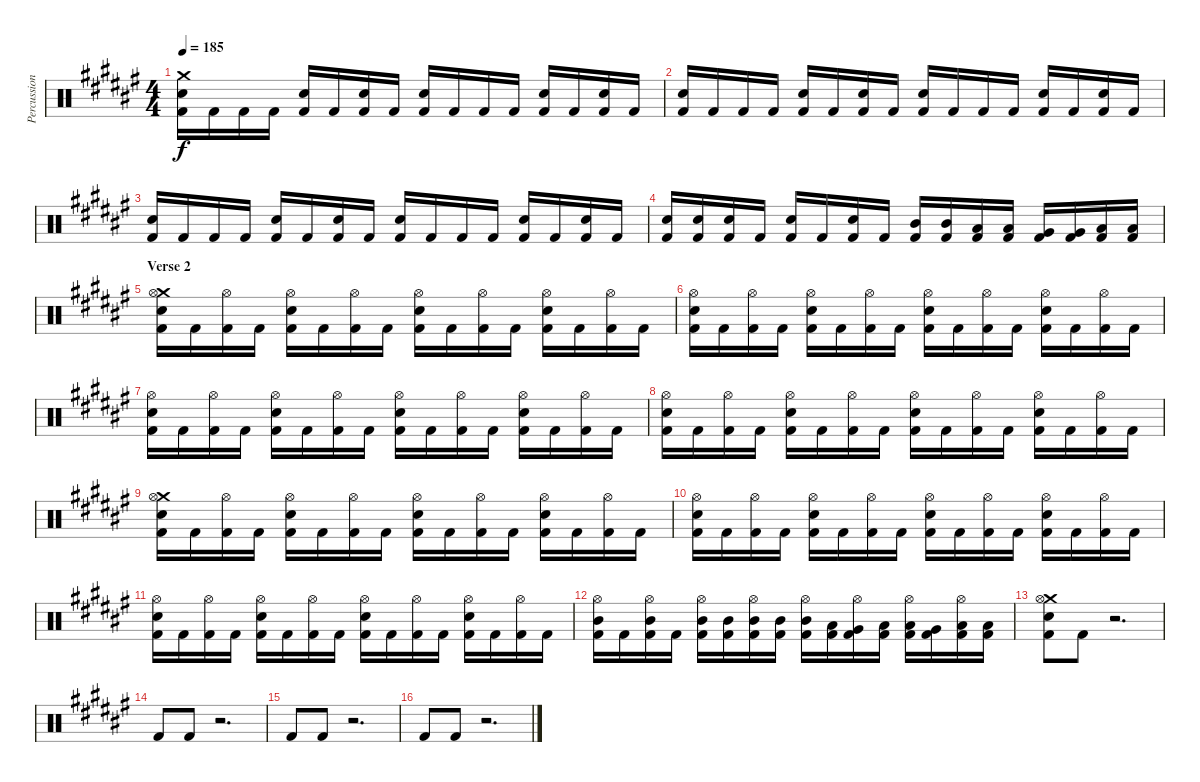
\track ("Percussion" "Percussion") {instrument percussion}
\staff {score}
\articulation defaults
\ts (4 4)
\tempo 185
\clef neutral
\ks d#minor
("Crash medium (hit)" "Electric Snare (hit)" "Kick (hit) 2").16{dy f} "Kick (hit) 2".16 "Kick (hit) 2".16 "Kick (hit) 2".16 ("Electric Snare (hit)" "Kick (hit) 2").16 "Kick (hit) 2".16 ("Electric Snare (hit)" "Kick (hit) 2").16 "Kick (hit) 2".16 ("Electric Snare (hit)" "Kick (hit) 2").16 "Kick (hit) 2".16 "Kick (hit) 2".16 "Kick (hit) 2".16 ("Electric Snare (hit)" "Kick (hit) 2").16 "Kick (hit) 2".16 ("Electric Snare (hit)" "Kick (hit) 2").16 "Kick (hit) 2".16 |
("Electric Snare (hit)" "Kick (hit) 2").16 "Kick (hit) 2".16 "Kick (hit) 2".16 "Kick (hit) 2".16 ("Electric Snare (hit)" "Kick (hit) 2").16 "Kick (hit) 2".16 ("Electric Snare (hit)" "Kick (hit) 2").16 "Kick (hit) 2".16 ("Electric Snare (hit)" "Kick (hit) 2").16 "Kick (hit) 2".16 "Kick (hit) 2".16 "Kick (hit) 2".16 ("Electric Snare (hit)" "Kick (hit) 2").16 "Kick (hit) 2".16 ("Electric Snare (hit)" "Kick (hit) 2").16 "Kick (hit) 2".16 |
("Electric Snare (hit)" "Kick (hit) 2").16 "Kick (hit) 2".16 "Kick (hit) 2".16 "Kick (hit) 2".16 ("Electric Snare (hit)" "Kick (hit) 2").16 "Kick (hit) 2".16 ("Electric Snare (hit)" "Kick (hit) 2").16 "Kick (hit) 2".16 ("Electric Snare (hit)" "Kick (hit) 2").16 "Kick (hit) 2".16 "Kick (hit) 2".16 "Kick (hit) 2".16 ("Electric Snare (hit)" "Kick (hit) 2").16 "Kick (hit) 2".16 ("Electric Snare (hit)" "Kick (hit) 2").16 "Kick (hit) 2".16 |
("Electric Snare (hit)" "Kick (hit) 2").16 ("Electric Snare (hit)" "Kick (hit) 2").16 ("Electric Snare (hit)" "Kick (hit) 2").16 "Kick (hit) 2".16 ("Electric Snare (hit)" "Kick (hit) 2").16 "Kick (hit) 2".16 ("Electric Snare (hit)" "Kick (hit) 2").16 "Kick (hit) 2".16 ("Mid Tom (hit)" "Kick (hit) 2").16 ("Mid Tom (hit)" "Kick (hit) 2").16 ("Low Tom (hit)" "Kick (hit) 2").16 ("Low Tom (hit)" "Kick (hit) 2").16 ("Very Low Tom (hit)" "Kick (hit) 2").16 ("Very Low Tom (hit)" "Kick (hit) 2").16 ("Low Floor Tom (hit)" "Kick (hit) 2").16 ("Low Floor Tom (hit)" "Kick (hit) 2").16 |
\section ("" "Verse 2")
("Crash medium (hit)" "Hi-Hat (open)" "Electric Snare (hit)" "Kick (hit) 2").16 "Kick (hit) 2".16 ("Hi-Hat (open)" "Kick (hit) 2").16 "Kick (hit) 2".16 ("Hi-Hat (open)" "Electric Snare (hit)" "Kick (hit) 2").16 "Kick (hit) 2".16 ("Hi-Hat (open)" "Kick (hit) 2").16 "Kick (hit) 2".16 ("Hi-Hat (open)" "Electric Snare (hit)" "Kick (hit) 2").16 "Kick (hit) 2".16 ("Hi-Hat (open)" "Kick (hit) 2").16 "Kick (hit) 2".16 ("Hi-Hat (open)" "Electric Snare (hit)" "Kick (hit) 2").16 "Kick (hit) 2".16 ("Hi-Hat (open)" "Kick (hit) 2").16 "Kick (hit) 2".16 |
("Hi-Hat (open)" "Electric Snare (hit)" "Kick (hit) 2").16 "Kick (hit) 2".16 ("Hi-Hat (open)" "Kick (hit) 2").16 "Kick (hit) 2".16 ("Hi-Hat (open)" "Electric Snare (hit)" "Kick (hit) 2").16 "Kick (hit) 2".16 ("Hi-Hat (open)" "Kick (hit) 2").16 "Kick (hit) 2".16 ("Hi-Hat (open)" "Electric Snare (hit)" "Kick (hit) 2").16 "Kick (hit) 2".16 ("Hi-Hat (open)" "Kick (hit) 2").16 "Kick (hit) 2".16 ("Hi-Hat (open)" "Electric Snare (hit)" "Kick (hit) 2").16 "Kick (hit) 2".16 ("Hi-Hat (open)" "Kick (hit) 2").16 "Kick (hit) 2".16 |
("Hi-Hat (open)" "Electric Snare (hit)" "Kick (hit) 2").16 "Kick (hit) 2".16 ("Hi-Hat (open)" "Kick (hit) 2").16 "Kick (hit) 2".16 ("Hi-Hat (open)" "Electric Snare (hit)" "Kick (hit) 2").16 "Kick (hit) 2".16 ("Hi-Hat (open)" "Kick (hit) 2").16 "Kick (hit) 2".16 ("Hi-Hat (open)" "Electric Snare (hit)" "Kick (hit) 2").16 "Kick (hit) 2".16 ("Hi-Hat (open)" "Kick (hit) 2").16 "Kick (hit) 2".16 ("Hi-Hat (open)" "Electric Snare (hit)" "Kick (hit) 2").16 "Kick (hit) 2".16 ("Hi-Hat (open)" "Kick (hit) 2").16 "Kick (hit) 2".16 |
("Hi-Hat (open)" "Electric Snare (hit)" "Kick (hit) 2").16 "Kick (hit) 2".16 ("Hi-Hat (open)" "Kick (hit) 2").16 "Kick (hit) 2".16 ("Hi-Hat (open)" "Electric Snare (hit)" "Kick (hit) 2").16 "Kick (hit) 2".16 ("Hi-Hat (open)" "Kick (hit) 2").16 "Kick (hit) 2".16 ("Hi-Hat (open)" "Electric Snare (hit)" "Kick (hit) 2").16 "Kick (hit) 2".16 ("Hi-Hat (open)" "Kick (hit) 2").16 "Kick (hit) 2".16 ("Hi-Hat (open)" "Electric Snare (hit)" "Kick (hit) 2").16 "Kick (hit) 2".16 ("Hi-Hat (open)" "Kick (hit) 2").16 "Kick (hit) 2".16 |
("Crash medium (hit)" "Hi-Hat (open)" "Electric Snare (hit)" "Kick (hit) 2").16 "Kick (hit) 2".16 ("Hi-Hat (open)" "Kick (hit) 2").16 "Kick (hit) 2".16 ("Hi-Hat (open)" "Electric Snare (hit)" "Kick (hit) 2").16 "Kick (hit) 2".16 ("Hi-Hat (open)" "Kick (hit) 2").16 "Kick (hit) 2".16 ("Hi-Hat (open)" "Electric Snare (hit)" "Kick (hit) 2").16 "Kick (hit) 2".16 ("Hi-Hat (open)" "Kick (hit) 2").16 "Kick (hit) 2".16 ("Hi-Hat (open)" "Electric Snare (hit)" "Kick (hit) 2").16 "Kick (hit) 2".16 ("Hi-Hat (open)" "Kick (hit) 2").16 "Kick (hit) 2".16 |
("Hi-Hat (open)" "Electric Snare (hit)" "Kick (hit) 2").16 "Kick (hit) 2".16 ("Hi-Hat (open)" "Kick (hit) 2").16 "Kick (hit) 2".16 ("Hi-Hat (open)" "Electric Snare (hit)" "Kick (hit) 2").16 "Kick (hit) 2".16 ("Hi-Hat (open)" "Kick (hit) 2").16 "Kick (hit) 2".16 ("Hi-Hat (open)" "Electric Snare (hit)" "Kick (hit) 2").16 "Kick (hit) 2".16 ("Hi-Hat (open)" "Kick (hit) 2").16 "Kick (hit) 2".16 ("Hi-Hat (open)" "Electric Snare (hit)" "Kick (hit) 2").16 "Kick (hit) 2".16 ("Hi-Hat (open)" "Kick (hit) 2").16 "Kick (hit) 2".16 |
("Hi-Hat (open)" "Electric Snare (hit)" "Kick (hit) 2").16 "Kick (hit) 2".16 ("Hi-Hat (open)" "Kick (hit) 2").16 "Kick (hit) 2".16 ("Hi-Hat (open)" "Electric Snare (hit)" "Kick (hit) 2").16 "Kick (hit) 2".16 ("Hi-Hat (open)" "Kick (hit) 2").16 "Kick (hit) 2".16 ("Hi-Hat (open)" "Electric Snare (hit)" "Kick (hit) 2").16 "Kick (hit) 2".16 ("Hi-Hat (open)" "Kick (hit) 2").16 "Kick (hit) 2".16 ("Hi-Hat (open)" "Electric Snare (hit)" "Kick (hit) 2").16 "Kick (hit) 2".16 ("Hi-Hat (open)" "Kick (hit) 2").16 "Kick (hit) 2".16 |
("Hi-Hat (open)" "Mid Tom (hit)" "Kick (hit) 2").16 "Kick (hit) 2".16 ("Hi-Hat (open)" "Mid Tom (hit)" "Kick (hit) 2").16 "Kick (hit) 2".16 ("Hi-Hat (open)" "Mid Tom (hit)" "Kick (hit) 2").16 ("Mid Tom (hit)" "Kick (hit) 2").16 ("Hi-Hat (open)" "Mid Tom (hit)" "Kick (hit) 2").16 ("Mid Tom (hit)" "Kick (hit) 2").16 ("Hi-Hat (open)" "Mid Tom (hit)" "Kick (hit) 2").16 ("Low Tom (hit)" "Kick (hit) 2").16 ("Hi-Hat (open)" "Very Low Tom (hit)" "Kick (hit) 2").16 ("Low Floor Tom (hit)" "Kick (hit) 2").16 ("Hi-Hat (open)" "Low Tom (hit)" "Kick (hit) 2").16 ("Very Low Tom (hit)" "Kick (hit) 2").16 ("Hi-Hat (open)" "Low Floor Tom (hit)" "Kick (hit) 2").16 ("Low Floor Tom (hit)" "Kick (hit) 2").16 |
("Crash medium (hit)" "Hi-Hat (open)" "Electric Snare (hit)" "Kick (hit) 2").8 "Kick (hit) 2".8 r.2{d} |
"Kick (hit) 2".8 "Kick (hit) 2".8 r.2{d} |
"Kick (hit) 2".8 "Kick (hit) 2".8 r.2{d} |
"Kick (hit) 2".8 "Kick (hit) 2".8 r.2{d}
